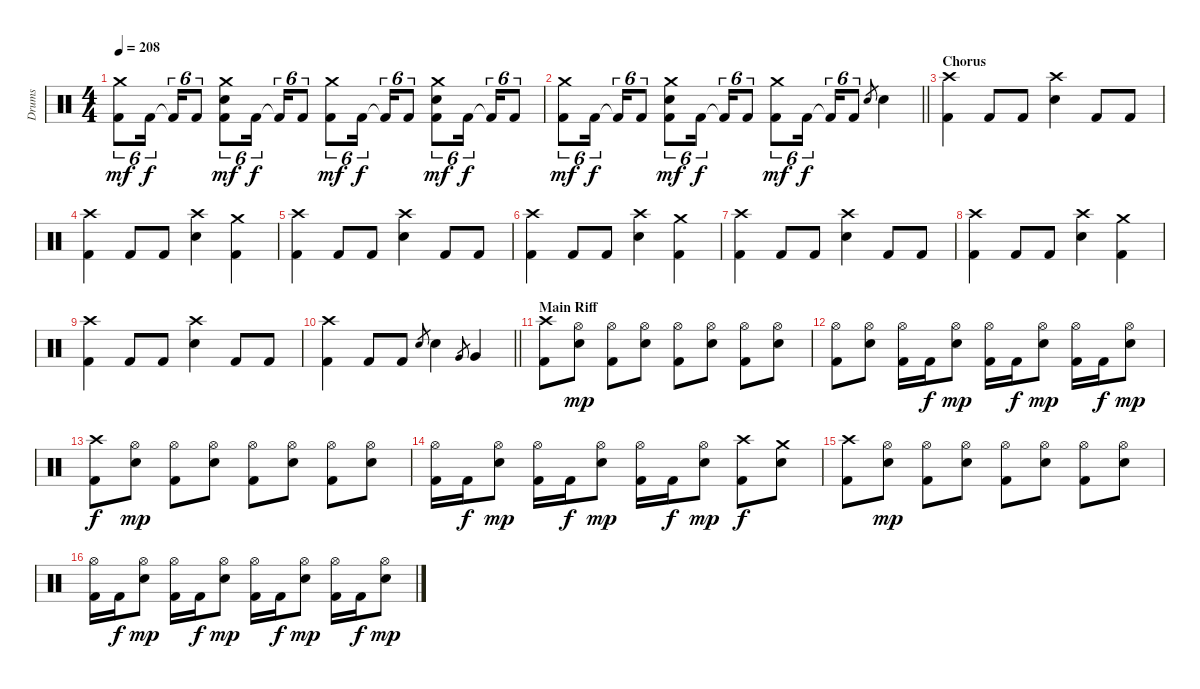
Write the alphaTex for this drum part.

\track ("Drums" "Drums") {instrument percussion}
\staff {score}
\articulation defaults
\ts (4 4)
\tempo 208
\clef neutral
\ks c
("Crash medium (hit)" "Kick (hit) 2").8{tu (6 4) dy mf} "Kick (hit) 2".16{tu (6 4) dy f beam splitsecondary} "Kick (hit) 2"{t}.16{tu (6 4)} "Kick (hit) 2".8{tu (6 4)} ("Crash medium (hit)" "Electric Snare (hit)" "Kick (hit) 2").8{tu (6 4) dy mf} "Kick (hit) 2".16{tu (6 4) dy f beam splitsecondary} "Kick (hit) 2"{t}.16{tu (6 4)} "Kick (hit) 2".8{tu (6 4)} ("Crash medium (hit)" "Kick (hit) 2").8{tu (6 4) dy mf} "Kick (hit) 2".16{tu (6 4) dy f beam splitsecondary} "Kick (hit) 2"{t}.16{tu (6 4)} "Kick (hit) 2".8{tu (6 4)} ("Crash medium (hit)" "Electric Snare (hit)" "Kick (hit) 2").8{tu (6 4) dy mf} "Kick (hit) 2".16{tu (6 4) dy f beam splitsecondary} "Kick (hit) 2"{t}.16{tu (6 4)} "Kick (hit) 2".8{tu (6 4)} |
\barLineRight lightlight
("Crash medium (hit)" "Kick (hit) 2").8{tu (6 4) dy mf} "Kick (hit) 2".16{tu (6 4) dy f beam splitsecondary} "Kick (hit) 2"{t}.16{tu (6 4)} "Kick (hit) 2".8{tu (6 4)} ("Crash medium (hit)" "Electric Snare (hit)" "Kick (hit) 2").8{tu (6 4) dy mf} "Kick (hit) 2".16{tu (6 4) dy f beam splitsecondary} "Kick (hit) 2"{t}.16{tu (6 4)} "Kick (hit) 2".8{tu (6 4)} ("Crash medium (hit)" "Kick (hit) 2").8{tu (6 4) dy mf} "Kick (hit) 2".16{tu (6 4) dy f beam splitsecondary} "Kick (hit) 2"{t}.16{tu (6 4)} "Kick (hit) 2".8{tu (6 4)} "Electric Snare (hit)".8{gr} "Electric Snare (hit)".4 |
\section ("" "Chorus")
("Crash high (hit)" "Kick (hit) 2").4 "Kick (hit) 2".8 "Kick (hit) 2".8 ("Crash high (hit)" "Electric Snare (hit)").4 "Kick (hit) 2".8 "Kick (hit) 2".8 |
("Crash high (hit)" "Kick (hit) 2").4 "Kick (hit) 2".8 "Kick (hit) 2".8 ("Crash high (hit)" "Electric Snare (hit)").4 ("Crash medium (hit)" "Kick (hit) 2").4 |
("Crash high (hit)" "Kick (hit) 2").4 "Kick (hit) 2".8 "Kick (hit) 2".8 ("Crash high (hit)" "Electric Snare (hit)").4 "Kick (hit) 2".8 "Kick (hit) 2".8 |
("Crash high (hit)" "Kick (hit) 2").4 "Kick (hit) 2".8 "Kick (hit) 2".8 ("Crash high (hit)" "Electric Snare (hit)").4 ("Crash medium (hit)" "Kick (hit) 2").4 |
("Crash high (hit)" "Kick (hit) 2").4 "Kick (hit) 2".8 "Kick (hit) 2".8 ("Crash high (hit)" "Electric Snare (hit)").4 "Kick (hit) 2".8 "Kick (hit) 2".8 |
("Crash high (hit)" "Kick (hit) 2").4 "Kick (hit) 2".8 "Kick (hit) 2".8 ("Crash high (hit)" "Electric Snare (hit)").4 ("Crash medium (hit)" "Kick (hit) 2").4 |
("Crash high (hit)" "Kick (hit) 2").4 "Kick (hit) 2".8 "Kick (hit) 2".8 ("Crash high (hit)" "Electric Snare (hit)").4 "Kick (hit) 2".8 "Kick (hit) 2".8 |
\barLineRight lightlight
("Crash high (hit)" "Kick (hit) 2").4 "Kick (hit) 2".8 "Kick (hit) 2".8 "Electric Snare (hit)".8{gr} "Electric Snare (hit)".4 "Very Low Tom (hit)".8{gr} "Very Low Tom (hit)".4 |
\section ("" "Main Riff")
("Crash high (hit)" "Kick (hit) 2").8 ("Hi-Hat (open)" "Electric Snare (hit)").8{dy mp} ("Hi-Hat (open)" "Kick (hit) 2").8 ("Hi-Hat (open)" "Electric Snare (hit)").8 ("Hi-Hat (open)" "Kick (hit) 2").8 ("Hi-Hat (open)" "Electric Snare (hit)").8 ("Hi-Hat (open)" "Kick (hit) 2").8 ("Hi-Hat (open)" "Electric Snare (hit)").8 |
("Hi-Hat (open)" "Kick (hit) 2").8 ("Hi-Hat (open)" "Electric Snare (hit)").8 ("Hi-Hat (open)" "Kick (hit) 2").16 "Kick (hit) 2".16{dy f} ("Hi-Hat (open)" "Electric Snare (hit)").8{dy mp} ("Hi-Hat (open)" "Kick (hit) 2").16 "Kick (hit) 2".16{dy f} ("Hi-Hat (open)" "Electric Snare (hit)").8{dy mp} ("Hi-Hat (open)" "Kick (hit) 2").16 "Kick (hit) 2".16{dy f} ("Hi-Hat (open)" "Electric Snare (hit)").8{dy mp} |
("Crash high (hit)" "Kick (hit) 2").8{dy f} ("Hi-Hat (open)" "Electric Snare (hit)").8{dy mp} ("Hi-Hat (open)" "Kick (hit) 2").8 ("Hi-Hat (open)" "Electric Snare (hit)").8 ("Hi-Hat (open)" "Kick (hit) 2").8 ("Hi-Hat (open)" "Electric Snare (hit)").8 ("Hi-Hat (open)" "Kick (hit) 2").8 ("Hi-Hat (open)" "Electric Snare (hit)").8 |
("Hi-Hat (open)" "Kick (hit) 2").16 "Kick (hit) 2".16{dy f} ("Hi-Hat (open)" "Electric Snare (hit)").8{dy mp} ("Hi-Hat (open)" "Kick (hit) 2").16 "Kick (hit) 2".16{dy f} ("Hi-Hat (open)" "Electric Snare (hit)").8{dy mp} ("Hi-Hat (open)" "Kick (hit) 2").16 "Kick (hit) 2".16{dy f} ("Hi-Hat (open)" "Electric Snare (hit)").8{dy mp} ("Crash high (hit)" "Kick (hit) 2").8{dy f} ("Crash medium (hit)" "Electric Snare (hit)").8 |
("Crash high (hit)" "Kick (hit) 2").8 ("Hi-Hat (open)" "Electric Snare (hit)").8{dy mp} ("Hi-Hat (open)" "Kick (hit) 2").8 ("Hi-Hat (open)" "Electric Snare (hit)").8 ("Hi-Hat (open)" "Kick (hit) 2").8 ("Hi-Hat (open)" "Electric Snare (hit)").8 ("Hi-Hat (open)" "Kick (hit) 2").8 ("Hi-Hat (open)" "Electric Snare (hit)").8 |
("Hi-Hat (open)" "Kick (hit) 2").16 "Kick (hit) 2".16{dy f} ("Hi-Hat (open)" "Electric Snare (hit)").8{dy mp} ("Hi-Hat (open)" "Kick (hit) 2").16 "Kick (hit) 2".16{dy f} ("Hi-Hat (open)" "Electric Snare (hit)").8{dy mp} ("Hi-Hat (open)" "Kick (hit) 2").16 "Kick (hit) 2".16{dy f} ("Hi-Hat (open)" "Electric Snare (hit)").8{dy mp} ("Hi-Hat (open)" "Kick (hit) 2").16 "Kick (hit) 2".16{dy f} ("Hi-Hat (open)" "Electric Snare (hit)").8{dy mp}
